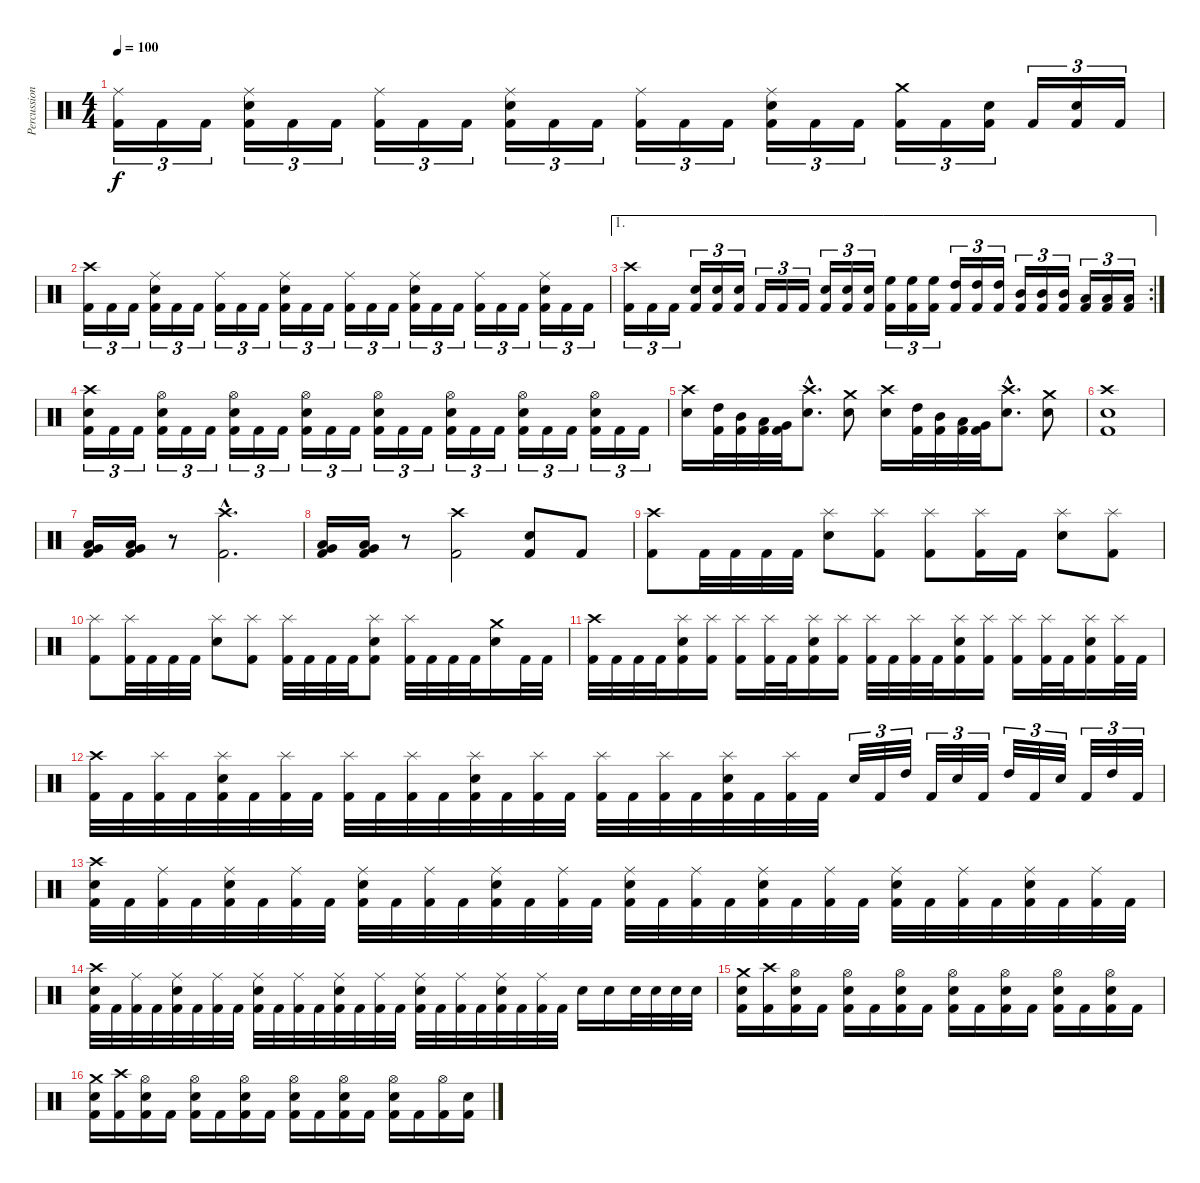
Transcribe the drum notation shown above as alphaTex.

\track ("Percussion" "Percussion") {instrument percussion}
\staff {score}
\articulation defaults
\ts (4 4)
\tempo 100
\clef neutral
\ks c
("Ride (middle)" "Kick (hit) 2").16{tu (3 2) dy f} "Kick (hit) 2".16{tu (3 2)} "Kick (hit) 2".16{tu (3 2)} ("Ride (middle)" "Electric Snare (hit)" "Kick (hit) 2").16{tu (3 2)} "Kick (hit) 2".16{tu (3 2)} "Kick (hit) 2".16{tu (3 2)} ("Ride (middle)" "Kick (hit) 2").16{tu (3 2)} "Kick (hit) 2".16{tu (3 2)} "Kick (hit) 2".16{tu (3 2)} ("Ride (middle)" "Electric Snare (hit)" "Kick (hit) 2").16{tu (3 2)} "Kick (hit) 2".16{tu (3 2)} "Kick (hit) 2".16{tu (3 2)} ("Ride (middle)" "Kick (hit) 2").16{tu (3 2)} "Kick (hit) 2".16{tu (3 2)} "Kick (hit) 2".16{tu (3 2)} ("Ride (middle)" "Electric Snare (hit)" "Kick (hit) 2").16{tu (3 2)} "Kick (hit) 2".16{tu (3 2)} "Kick (hit) 2".16{tu (3 2)} ("Crash medium (hit)" "Kick (hit) 2").16{tu (3 2)} "Kick (hit) 2".16{tu (3 2)} ("Electric Snare (hit)" "Kick (hit) 2").16{tu (3 2)} "Kick (hit) 2".16{tu (3 2)} ("Electric Snare (hit)" "Kick (hit) 2").16{tu (3 2)} "Kick (hit) 2".16{tu (3 2)} |
("Crash high (hit)" "Kick (hit) 2").16{tu (3 2)} "Kick (hit) 2".16{tu (3 2)} "Kick (hit) 2".16{tu (3 2)} ("Ride (middle)" "Electric Snare (hit)" "Kick (hit) 2").16{tu (3 2)} "Kick (hit) 2".16{tu (3 2)} "Kick (hit) 2".16{tu (3 2)} ("Ride (middle)" "Kick (hit) 2").16{tu (3 2)} "Kick (hit) 2".16{tu (3 2)} "Kick (hit) 2".16{tu (3 2)} ("Ride (middle)" "Electric Snare (hit)" "Kick (hit) 2").16{tu (3 2)} "Kick (hit) 2".16{tu (3 2)} "Kick (hit) 2".16{tu (3 2)} ("Ride (middle)" "Kick (hit) 2").16{tu (3 2)} "Kick (hit) 2".16{tu (3 2)} "Kick (hit) 2".16{tu (3 2)} ("Ride (middle)" "Electric Snare (hit)" "Kick (hit) 2").16{tu (3 2)} "Kick (hit) 2".16{tu (3 2)} "Kick (hit) 2".16{tu (3 2)} ("Ride (middle)" "Kick (hit) 2").16{tu (3 2)} "Kick (hit) 2".16{tu (3 2)} "Kick (hit) 2".16{tu (3 2)} ("Ride (middle)" "Electric Snare (hit)" "Kick (hit) 2").16{tu (3 2)} "Kick (hit) 2".16{tu (3 2)} "Kick (hit) 2".16{tu (3 2)} |
\ae 1
\rc 2
("Crash high (hit)" "Kick (hit) 2").16{tu (3 2)} "Kick (hit) 2".16{tu (3 2)} "Kick (hit) 2".16{tu (3 2)} ("Electric Snare (hit)" "Kick (hit) 2").16{tu (3 2)} ("Electric Snare (hit)" "Kick (hit) 2").16{tu (3 2)} ("Electric Snare (hit)" "Kick (hit) 2").16{tu (3 2)} "Kick (hit) 2".16{tu (3 2)} "Kick (hit) 2".16{tu (3 2)} "Kick (hit) 2".16{tu (3 2)} ("Electric Snare (hit)" "Kick (hit) 2").16{tu (3 2)} ("Electric Snare (hit)" "Kick (hit) 2").16{tu (3 2)} ("Electric Snare (hit)" "Kick (hit) 2").16{tu (3 2)} ("High Floor Tom (hit)" "Kick (hit) 2").16{tu (3 2)} ("High Floor Tom (hit)" "Kick (hit) 2").16{tu (3 2)} ("High Floor Tom (hit)" "Kick (hit) 2").16{tu (3 2)} ("High Tom (hit)" "Kick (hit) 2").16{tu (3 2)} ("High Tom (hit)" "Kick (hit) 2").16{tu (3 2)} ("High Tom (hit)" "Kick (hit) 2").16{tu (3 2)} ("Mid Tom (hit)" "Kick (hit) 2").16{tu (3 2)} ("Mid Tom (hit)" "Kick (hit) 2").16{tu (3 2)} ("Mid Tom (hit)" "Kick (hit) 2").16{tu (3 2)} ("Low Tom (hit)" "Kick (hit) 2").16{tu (3 2)} ("Low Tom (hit)" "Kick (hit) 2").16{tu (3 2)} ("Low Tom (hit)" "Kick (hit) 2").16{tu (3 2)} |
("Crash high (hit)" "Electric Snare (hit)" "Kick (hit) 2").16{tu (3 2)} "Kick (hit) 2".16{tu (3 2)} "Kick (hit) 2".16{tu (3 2)} ("Hi-Hat (open)" "Electric Snare (hit)" "Kick (hit) 2").16{tu (3 2)} "Kick (hit) 2".16{tu (3 2)} "Kick (hit) 2".16{tu (3 2)} ("Hi-Hat (open)" "Electric Snare (hit)" "Kick (hit) 2").16{tu (3 2)} "Kick (hit) 2".16{tu (3 2)} "Kick (hit) 2".16{tu (3 2)} ("Hi-Hat (open)" "Electric Snare (hit)" "Kick (hit) 2").16{tu (3 2)} "Kick (hit) 2".16{tu (3 2)} "Kick (hit) 2".16{tu (3 2)} ("Hi-Hat (open)" "Electric Snare (hit)" "Kick (hit) 2").16{tu (3 2)} "Kick (hit) 2".16{tu (3 2)} "Kick (hit) 2".16{tu (3 2)} ("Hi-Hat (open)" "Electric Snare (hit)" "Kick (hit) 2").16{tu (3 2)} "Kick (hit) 2".16{tu (3 2)} "Kick (hit) 2".16{tu (3 2)} ("Hi-Hat (open)" "Electric Snare (hit)" "Kick (hit) 2").16{tu (3 2)} "Kick (hit) 2".16{tu (3 2)} "Kick (hit) 2".16{tu (3 2)} ("Hi-Hat (open)" "Electric Snare (hit)" "Kick (hit) 2").16{tu (3 2)} "Kick (hit) 2".16{tu (3 2)} "Kick (hit) 2".16{tu (3 2)} |
("Crash high (hit)" "Electric Snare (hit)").16 ("High Tom (hit)" "Kick (hit) 2").32 ("Mid Tom (hit)" "Kick (hit) 2").32 ("Low Tom (hit)" "Kick (hit) 2").32 ("Very Low Tom (hit)" "Kick (hit) 2").32 ("Crash high (hit)"{hac} "Electric Snare (hit)"{hac}).8{d} ("Crash medium (hit)" "Electric Snare (hit)").8 ("Crash high (hit)" "Electric Snare (hit)").16 ("Kick (hit) 2" "High Tom (hit)").32 ("Kick (hit) 2" "Mid Tom (hit)").32 ("Kick (hit) 2" "Low Tom (hit)").32 ("Kick (hit) 2" "Very Low Tom (hit)").32 ("Crash high (hit)"{hac} "Electric Snare (hit)"{hac}).8{d} ("Crash medium (hit)" "Electric Snare (hit)").8 |
("Electric Snare (hit)" "Crash high (hit)" "Kick (hit) 2").1 |
("Low Tom (hit)" "Very Low Tom (hit)" "Kick (hit) 2").16 ("Low Tom (hit)" "Very Low Tom (hit)" "Kick (hit) 2").16 r.8 ("Crash high (hit)"{hac} "Kick (hit) 2"{hac}).2{d} |
("Low Tom (hit)" "Very Low Tom (hit)" "Kick (hit) 2").16 ("Low Tom (hit)" "Very Low Tom (hit)" "Kick (hit) 2").16 r.8 ("Crash high (hit)" "Kick (hit) 2").2 ("Electric Snare (hit)" "Kick (hit) 2").8 "Kick (hit) 2".8 |
("Crash high (hit)" "Kick (hit) 2").8 "Kick (hit) 2".32 "Kick (hit) 2".32 "Kick (hit) 2".32 "Kick (hit) 2".32 ("Splash (hit)" "Electric Snare (hit)").8 ("Splash (hit)" "Kick (hit) 2").8 ("Splash (hit)" "Kick (hit) 2").8 ("Splash (hit)" "Kick (hit) 2").16 "Kick (hit) 2".16 ("Splash (hit)" "Electric Snare (hit)").8 ("Splash (hit)" "Kick (hit) 2").8 |
("Splash (hit)" "Kick (hit) 2").8 ("Splash (hit)" "Kick (hit) 2").32 "Kick (hit) 2".32 "Kick (hit) 2".32 "Kick (hit) 2".32 ("Splash (hit)" "Electric Snare (hit)").8 ("Splash (hit)" "Kick (hit) 2").8 ("Splash (hit)" "Kick (hit) 2").32 "Kick (hit) 2".32 "Kick (hit) 2".32 "Kick (hit) 2".32 ("Splash (hit)" "Electric Snare (hit)" "Kick (hit) 2").8 ("Splash (hit)" "Kick (hit) 2").32 "Kick (hit) 2".32 "Kick (hit) 2".32 "Kick (hit) 2".32 ("Crash medium (hit)" "Electric Snare (hit)").16 "Kick (hit) 2".32 "Kick (hit) 2".32 |
("Crash high (hit)" "Kick (hit) 2").32 "Kick (hit) 2".32 "Kick (hit) 2".32 "Kick (hit) 2".32 ("Splash (hit)" "Electric Snare (hit)" "Kick (hit) 2").16 ("Splash (hit)" "Kick (hit) 2").16 ("Splash (hit)" "Kick (hit) 2").16 ("Splash (hit)" "Kick (hit) 2").32 "Kick (hit) 2".32 ("Splash (hit)" "Electric Snare (hit)" "Kick (hit) 2").16 ("Splash (hit)" "Kick (hit) 2").16 ("Splash (hit)" "Kick (hit) 2").32 "Kick (hit) 2".32 ("Splash (hit)" "Kick (hit) 2").32 "Kick (hit) 2".32 ("Splash (hit)" "Electric Snare (hit)" "Kick (hit) 2").16 ("Splash (hit)" "Kick (hit) 2").16 ("Splash (hit)" "Kick (hit) 2").16 ("Splash (hit)" "Kick (hit) 2").32 "Kick (hit) 2".32 ("Splash (hit)" "Electric Snare (hit)" "Kick (hit) 2").16 ("Splash (hit)" "Kick (hit) 2").32 "Kick (hit) 2".32 |
("Crash high (hit)" "Kick (hit) 2").32 "Kick (hit) 2".32 ("Splash (hit)" "Kick (hit) 2").32 "Kick (hit) 2".32 ("Splash (hit)" "Electric Snare (hit)" "Kick (hit) 2").32 "Kick (hit) 2".32 ("Splash (hit)" "Kick (hit) 2").32 "Kick (hit) 2".32 ("Splash (hit)" "Kick (hit) 2").32 "Kick (hit) 2".32 ("Splash (hit)" "Kick (hit) 2").32 "Kick (hit) 2".32 ("Splash (hit)" "Electric Snare (hit)" "Kick (hit) 2").32 "Kick (hit) 2".32 ("Splash (hit)" "Kick (hit) 2").32 "Kick (hit) 2".32 ("Splash (hit)" "Kick (hit) 2").32 "Kick (hit) 2".32 ("Splash (hit)" "Kick (hit) 2").32 "Kick (hit) 2".32 ("Splash (hit)" "Electric Snare (hit)" "Kick (hit) 2").32 "Kick (hit) 2".32 ("Splash (hit)" "Kick (hit) 2").32 "Kick (hit) 2".32 "Electric Snare (hit)".32{tu (3 2)} "Kick (hit) 2".32{tu (3 2)} "High Tom (hit)".32{tu (3 2)} "Kick (hit) 2".32{tu (3 2)} "Electric Snare (hit)".32{tu (3 2)} "Kick (hit) 2".32{tu (3 2)} "High Tom (hit)".32{tu (3 2)} "Kick (hit) 2".32{tu (3 2)} "Electric Snare (hit)".32{tu (3 2)} "Kick (hit) 2".32{tu (3 2)} "High Tom (hit)".32{tu (3 2)} "Kick (hit) 2".32{tu (3 2)} |
("Crash high (hit)" "Electric Snare (hit)" "Kick (hit) 2").32 "Kick (hit) 2".32 ("Ride (middle)" "Kick (hit) 2").32 "Kick (hit) 2".32 ("Ride (middle)" "Electric Snare (hit)" "Kick (hit) 2").32 "Kick (hit) 2".32 ("Ride (middle)" "Kick (hit) 2").32 "Kick (hit) 2".32 ("Ride (middle)" "Electric Snare (hit)" "Kick (hit) 2").32 "Kick (hit) 2".32 ("Ride (middle)" "Kick (hit) 2").32 "Kick (hit) 2".32 ("Ride (middle)" "Electric Snare (hit)" "Kick (hit) 2").32 "Kick (hit) 2".32 ("Ride (middle)" "Kick (hit) 2").32 "Kick (hit) 2".32 ("Ride (middle)" "Electric Snare (hit)" "Kick (hit) 2").32 "Kick (hit) 2".32 ("Ride (middle)" "Kick (hit) 2").32 "Kick (hit) 2".32 ("Ride (middle)" "Electric Snare (hit)" "Kick (hit) 2").32 "Kick (hit) 2".32 ("Ride (middle)" "Kick (hit) 2").32 "Kick (hit) 2".32 ("Ride (middle)" "Electric Snare (hit)" "Kick (hit) 2").32 "Kick (hit) 2".32 ("Ride (middle)" "Kick (hit) 2").32 "Kick (hit) 2".32 ("Ride (middle)" "Electric Snare (hit)" "Kick (hit) 2").32 "Kick (hit) 2".32 ("Ride (middle)" "Kick (hit) 2").32 "Kick (hit) 2".32 |
("Crash high (hit)" "Electric Snare (hit)" "Kick (hit) 2").32 "Kick (hit) 2".32 ("Ride (middle)" "Kick (hit) 2").32 "Kick (hit) 2".32 ("Ride (middle)" "Electric Snare (hit)" "Kick (hit) 2").32 "Kick (hit) 2".32 ("Ride (middle)" "Kick (hit) 2").32 "Kick (hit) 2".32 ("Ride (middle)" "Electric Snare (hit)" "Kick (hit) 2").32 "Kick (hit) 2".32 ("Ride (middle)" "Kick (hit) 2").32 "Kick (hit) 2".32 ("Ride (middle)" "Electric Snare (hit)" "Kick (hit) 2").32 "Kick (hit) 2".32 ("Ride (middle)" "Kick (hit) 2").32 "Kick (hit) 2".32 ("Ride (middle)" "Electric Snare (hit)" "Kick (hit) 2").32 "Kick (hit) 2".32 ("Ride (middle)" "Kick (hit) 2").32 "Kick (hit) 2".32 ("Ride (middle)" "Electric Snare (hit)" "Kick (hit) 2").32 "Kick (hit) 2".32 ("Ride (middle)" "Kick (hit) 2").32 "Kick (hit) 2".32 "Electric Snare (hit)".16 "Electric Snare (hit)".16 "Electric Snare (hit)".32 "Electric Snare (hit)".32 "Electric Snare (hit)".32 "Electric Snare (hit)".32 |
("Crash medium (hit)" "Electric Snare (hit)" "Kick (hit) 2").16 ("Crash high (hit)" "Kick (hit) 2").16 ("Hi-Hat (open)" "Electric Snare (hit)" "Kick (hit) 2").16 "Kick (hit) 2".16 ("Hi-Hat (open)" "Electric Snare (hit)" "Kick (hit) 2").16 "Kick (hit) 2".16 ("Hi-Hat (open)" "Electric Snare (hit)" "Kick (hit) 2").16 "Kick (hit) 2".16 ("Hi-Hat (open)" "Electric Snare (hit)" "Kick (hit) 2").16 "Kick (hit) 2".16 ("Hi-Hat (open)" "Electric Snare (hit)" "Kick (hit) 2").16 "Kick (hit) 2".16 ("Hi-Hat (open)" "Electric Snare (hit)" "Kick (hit) 2").16 "Kick (hit) 2".16 ("Hi-Hat (open)" "Electric Snare (hit)" "Kick (hit) 2").16 "Kick (hit) 2".16 |
("Crash medium (hit)" "Electric Snare (hit)" "Kick (hit) 2").16 ("Crash high (hit)" "Kick (hit) 2").16 ("Hi-Hat (open)" "Electric Snare (hit)" "Kick (hit) 2").16 "Kick (hit) 2".16 ("Hi-Hat (open)" "Electric Snare (hit)" "Kick (hit) 2").16 "Kick (hit) 2".16 ("Hi-Hat (open)" "Electric Snare (hit)" "Kick (hit) 2").16 "Kick (hit) 2".16 ("Hi-Hat (open)" "Electric Snare (hit)" "Kick (hit) 2").16 "Kick (hit) 2".16 ("Hi-Hat (open)" "Electric Snare (hit)" "Kick (hit) 2").16 "Kick (hit) 2".16 ("Hi-Hat (open)" "Electric Snare (hit)" "Kick (hit) 2").16 "Kick (hit) 2".16 ("Hi-Hat (open)" "Kick (hit) 2").16 ("Electric Snare (hit)" "Kick (hit) 2").16
